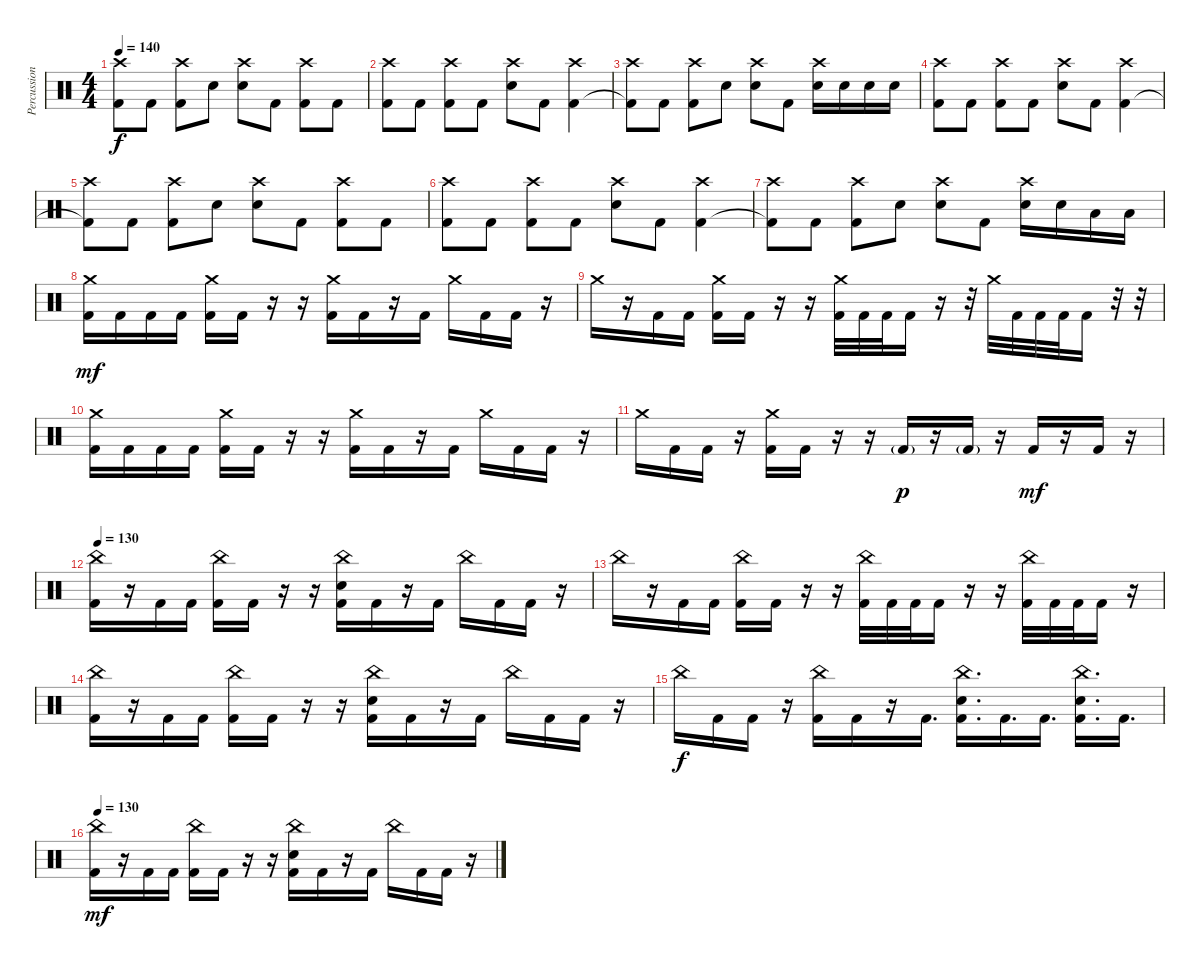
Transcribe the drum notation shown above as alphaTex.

\track ("Percussions" "Percussion") {instrument percussion}
\staff {score}
\articulation defaults
\ts (4 4)
\tempo 140
\clef neutral
\ks c
("Crash high (hit)" "Kick (hit) 2"{t}).8{dy f} "Kick (hit) 2".8 ("Crash high (hit)" "Kick (hit) 2").8 "Electric Snare (hit)".8 ("Crash high (hit)" "Electric Snare (hit)").8 "Kick (hit) 2".8 ("Crash high (hit)" "Kick (hit) 2").8 "Kick (hit) 2".8 |
("Crash high (hit)" "Kick (hit) 2").8 "Kick (hit) 2".8 ("Crash high (hit)" "Kick (hit) 2").8 "Kick (hit) 2".8 ("Crash high (hit)" "Electric Snare (hit)").8 "Kick (hit) 2".8 ("Crash high (hit)" "Kick (hit) 2").4 |
("Crash high (hit)" "Kick (hit) 2"{t}).8 "Kick (hit) 2".8 ("Crash high (hit)" "Kick (hit) 2").8 "Electric Snare (hit)".8 ("Crash high (hit)" "Electric Snare (hit)").8 "Kick (hit) 2".8 ("Crash high (hit)" "Electric Snare (hit)").16 "Electric Snare (hit)".16 "Electric Snare (hit)".16 "Electric Snare (hit)".16 |
("Crash high (hit)" "Kick (hit) 2").8 "Kick (hit) 2".8 ("Crash high (hit)" "Kick (hit) 2").8 "Kick (hit) 2".8 ("Crash high (hit)" "Electric Snare (hit)").8 "Kick (hit) 2".8 ("Crash high (hit)" "Kick (hit) 2").4 |
("Crash high (hit)" "Kick (hit) 2"{t}).8 "Kick (hit) 2".8 ("Crash high (hit)" "Kick (hit) 2").8 "Electric Snare (hit)".8 ("Crash high (hit)" "Electric Snare (hit)").8 "Kick (hit) 2".8 ("Crash high (hit)" "Kick (hit) 2").8 "Kick (hit) 2".8 |
("Crash high (hit)" "Kick (hit) 2").8 "Kick (hit) 2".8 ("Crash high (hit)" "Kick (hit) 2").8 "Kick (hit) 2".8 ("Crash high (hit)" "Electric Snare (hit)").8 "Kick (hit) 2".8 ("Crash high (hit)" "Kick (hit) 2").4 |
("Crash high (hit)" "Kick (hit) 2"{t}).8 "Kick (hit) 2".8 ("Crash high (hit)" "Kick (hit) 2").8 "Electric Snare (hit)".8 ("Crash high (hit)" "Electric Snare (hit)").8 "Kick (hit) 2".8 ("Crash high (hit)" "Electric Snare (hit)").16 "Electric Snare (hit)".16 "Low Tom (hit)".16 "Low Tom (hit)".16 |
("Crash medium (hit)" "Kick (hit) 2").16{dy mf} "Kick (hit) 2".16 "Kick (hit) 2".16 "Kick (hit) 2".16 ("Crash medium (hit)" "Kick (hit) 2").16 "Kick (hit) 2".16 r.16 r.16 ("Crash medium (hit)" "Kick (hit) 2").16 "Kick (hit) 2".16 r.16 "Kick (hit) 2".16 "Crash medium (hit)".16 "Kick (hit) 2".16 "Kick (hit) 2".16 r.16 |
"Crash medium (hit)".16 r.16 "Kick (hit) 2".16 "Kick (hit) 2".16 ("Crash medium (hit)" "Kick (hit) 2").16 "Kick (hit) 2".16 r.16 r.16 ("Crash medium (hit)" "Kick (hit) 2").32 "Kick (hit) 2".32 "Kick (hit) 2".32 "Kick (hit) 2".16 r.16 r.32 "Crash medium (hit)".32 "Kick (hit) 2".32 "Kick (hit) 2".32 "Kick (hit) 2".32 "Kick (hit) 2".16 r.32 r.32 |
("Crash medium (hit)" "Kick (hit) 2").16 "Kick (hit) 2".16 "Kick (hit) 2".16 "Kick (hit) 2".16 ("Crash medium (hit)" "Kick (hit) 2").16 "Kick (hit) 2".16 r.16 r.16 ("Crash medium (hit)" "Kick (hit) 2").16 "Kick (hit) 2".16 r.16 "Kick (hit) 2".16 "Crash medium (hit)".16 "Kick (hit) 2".16 "Kick (hit) 2".16 r.16 |
"Crash medium (hit)".16 "Kick (hit) 2".16 "Kick (hit) 2".16 r.16 ("Crash medium (hit)" "Kick (hit) 2").16 "Kick (hit) 2".16 r.16 r.16 "Kick (hit) 2"{g}.16{dy p} r.16 "Kick (hit) 2"{g}.16 r.16 "Kick (hit) 2".16{dy mf} r.16 "Kick (hit) 2".16 r.16 |
\tempo 130
("China (hit)" "Kick (hit) 2").16 r.16 "Kick (hit) 2".16 "Kick (hit) 2".16 ("China (hit)" "Kick (hit) 2").16 "Kick (hit) 2".16 r.16 r.16 ("China (hit)" "Electric Snare (hit)" "Kick (hit) 2").16 "Kick (hit) 2".16 r.16 "Kick (hit) 2".16 "China (hit)".16 "Kick (hit) 2".16 "Kick (hit) 2".16 r.16 |
"China (hit)".16 r.16 "Kick (hit) 2".16 "Kick (hit) 2".16 ("China (hit)" "Kick (hit) 2").16 "Kick (hit) 2".16 r.16 r.16 ("China (hit)" "Kick (hit) 2").32 "Kick (hit) 2".32 "Kick (hit) 2".32 "Kick (hit) 2".16 r.16 r.16 ("China (hit)" "Kick (hit) 2").32 "Kick (hit) 2".32 "Kick (hit) 2".32 "Kick (hit) 2".16 r.16 |
("China (hit)" "Kick (hit) 2").16 r.16 "Kick (hit) 2".16 "Kick (hit) 2".16 ("China (hit)" "Kick (hit) 2").16 "Kick (hit) 2".16 r.16 r.16 ("China (hit)" "Electric Snare (hit)" "Kick (hit) 2").16 "Kick (hit) 2".16 r.16 "Kick (hit) 2".16 "China (hit)".16 "Kick (hit) 2".16 "Kick (hit) 2".16 r.16 |
"China (hit)".16{dy f} "Kick (hit) 2".16 "Kick (hit) 2".16 r.16 ("China (hit)" "Kick (hit) 2").16 "Kick (hit) 2".16 r.16 "Kick (hit) 2".16{d} ("China (hit)" "Electric Snare (hit)" "Kick (hit) 2").16{d} "Kick (hit) 2".16{d} "Kick (hit) 2".16{d} ("China (hit)" "Electric Snare (hit)" "Kick (hit) 2").16{d} "Kick (hit) 2".16{d} |
\tempo 130
("China (hit)" "Kick (hit) 2").16{dy mf} r.16 "Kick (hit) 2".16 "Kick (hit) 2".16 ("China (hit)" "Kick (hit) 2").16 "Kick (hit) 2".16 r.16 r.16 ("China (hit)" "Electric Snare (hit)" "Kick (hit) 2").16 "Kick (hit) 2".16 r.16 "Kick (hit) 2".16 "China (hit)".16 "Kick (hit) 2".16 "Kick (hit) 2".16 r.16
